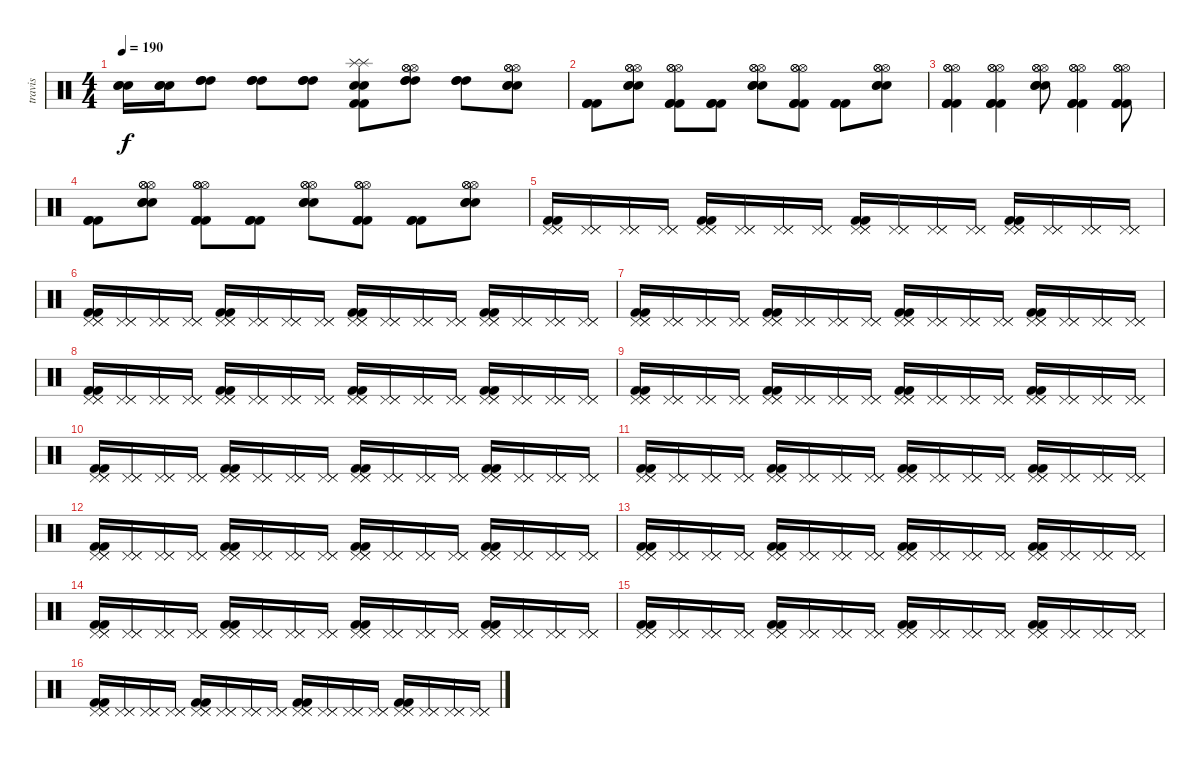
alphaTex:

\track ("travis" "travis") {instrument percussion}
\staff {score}
\articulation defaults
\ts (4 4)
\tempo 190
\clef neutral
\ks c
("Snare (hit) 2" "Snare (hit) 2" "Snare (hit) 2").16{dy f} ("Snare (hit) 2" "Snare (hit) 2" "Snare (hit) 2").16 ("High Tom (hit)" "High Tom (hit)" "High Tom (hit)").8 ("High Tom (hit)" "High Tom (hit)" "High Tom (hit)").8 ("High Tom (hit)" "High Tom (hit)" "High Tom (hit)").8 ("Snare (hit) 2" "Snare (hit) 2" "Kick (hit) 2" "Kick (hit) 2" "Splash (hit)" "Splash (hit)").8 ("High Tom (hit)" "High Tom (hit)" "High Tom (hit)" "Hi-Hat (open)" "Hi-Hat (open)" "Hi-Hat (open)").8 ("High Tom (hit)" "High Tom (hit)" "High Tom (hit)").8 ("Snare (hit) 2" "Snare (hit) 2" "Snare (hit) 2" "Hi-Hat (open)" "Hi-Hat (open)" "Hi-Hat (open)").8 |
("Kick (hit) 2" "Kick (hit) 2" "Kick (hit) 2").8 ("Snare (hit) 2" "Snare (hit) 2" "Snare (hit) 2" "Hi-Hat (open)" "Hi-Hat (open)" "Hi-Hat (open)").8 ("Kick (hit) 2" "Kick (hit) 2" "Kick (hit) 2" "Hi-Hat (open)" "Hi-Hat (open)" "Hi-Hat (open)").8 ("Kick (hit) 2" "Kick (hit) 2" "Kick (hit) 2").8 ("Snare (hit) 2" "Snare (hit) 2" "Snare (hit) 2" "Hi-Hat (open)" "Hi-Hat (open)" "Hi-Hat (open)").8 ("Kick (hit) 2" "Kick (hit) 2" "Kick (hit) 2" "Hi-Hat (open)" "Hi-Hat (open)" "Hi-Hat (open)").8 ("Kick (hit) 2" "Kick (hit) 2" "Kick (hit) 2").8 ("Snare (hit) 2" "Snare (hit) 2" "Snare (hit) 2" "Hi-Hat (open)" "Hi-Hat (open)" "Hi-Hat (open)").8 |
("Kick (hit) 2" "Kick (hit) 2" "Kick (hit) 2" "Hi-Hat (open)" "Hi-Hat (open)" "Hi-Hat (open)").4 ("Kick (hit) 2" "Kick (hit) 2" "Kick (hit) 2" "Hi-Hat (open)" "Hi-Hat (open)" "Hi-Hat (open)").4 ("Snare (hit) 2" "Snare (hit) 2" "Snare (hit) 2" "Hi-Hat (open)" "Hi-Hat (open)" "Hi-Hat (open)").8 ("Kick (hit) 2" "Kick (hit) 2" "Kick (hit) 2" "Hi-Hat (open)" "Hi-Hat (open)" "Hi-Hat (open)").4 ("Kick (hit) 2" "Kick (hit) 2" "Kick (hit) 2" "Hi-Hat (open)" "Hi-Hat (open)" "Hi-Hat (open)").8 |
("Kick (hit) 2" "Kick (hit) 2" "Kick (hit) 2").8 ("Snare (hit) 2" "Snare (hit) 2" "Snare (hit) 2" "Hi-Hat (open)" "Hi-Hat (open)" "Hi-Hat (open)").8 ("Kick (hit) 2" "Kick (hit) 2" "Kick (hit) 2" "Hi-Hat (open)" "Hi-Hat (open)" "Hi-Hat (open)").8 ("Kick (hit) 2" "Kick (hit) 2" "Kick (hit) 2").8 ("Snare (hit) 2" "Snare (hit) 2" "Snare (hit) 2" "Hi-Hat (open)" "Hi-Hat (open)" "Hi-Hat (open)").8 ("Kick (hit) 2" "Kick (hit) 2" "Kick (hit) 2" "Hi-Hat (open)" "Hi-Hat (open)" "Hi-Hat (open)").8 ("Kick (hit) 2" "Kick (hit) 2" "Kick (hit) 2").8 ("Snare (hit) 2" "Snare (hit) 2" "Snare (hit) 2" "Hi-Hat (open)" "Hi-Hat (open)" "Hi-Hat (open)").8 |
("Pedal Hi-Hat (hit)" "Pedal Hi-Hat (hit)" "Pedal Hi-Hat (hit)" "Kick (hit) 2" "Kick (hit) 2").16 ("Pedal Hi-Hat (hit)" "Pedal Hi-Hat (hit)" "Pedal Hi-Hat (hit)").16 ("Pedal Hi-Hat (hit)" "Pedal Hi-Hat (hit)" "Pedal Hi-Hat (hit)").16 ("Pedal Hi-Hat (hit)" "Pedal Hi-Hat (hit)" "Pedal Hi-Hat (hit)").16 ("Pedal Hi-Hat (hit)" "Pedal Hi-Hat (hit)" "Pedal Hi-Hat (hit)" "Kick (hit) 2" "Kick (hit) 2").16 ("Pedal Hi-Hat (hit)" "Pedal Hi-Hat (hit)" "Pedal Hi-Hat (hit)").16 ("Pedal Hi-Hat (hit)" "Pedal Hi-Hat (hit)" "Pedal Hi-Hat (hit)").16 ("Pedal Hi-Hat (hit)" "Pedal Hi-Hat (hit)" "Pedal Hi-Hat (hit)").16 ("Pedal Hi-Hat (hit)" "Pedal Hi-Hat (hit)" "Pedal Hi-Hat (hit)" "Kick (hit) 2" "Kick (hit) 2").16 ("Pedal Hi-Hat (hit)" "Pedal Hi-Hat (hit)" "Pedal Hi-Hat (hit)").16 ("Pedal Hi-Hat (hit)" "Pedal Hi-Hat (hit)" "Pedal Hi-Hat (hit)").16 ("Pedal Hi-Hat (hit)" "Pedal Hi-Hat (hit)" "Pedal Hi-Hat (hit)").16 ("Pedal Hi-Hat (hit)" "Pedal Hi-Hat (hit)" "Pedal Hi-Hat (hit)" "Kick (hit) 2" "Kick (hit) 2").16 ("Pedal Hi-Hat (hit)" "Pedal Hi-Hat (hit)" "Pedal Hi-Hat (hit)").16 ("Pedal Hi-Hat (hit)" "Pedal Hi-Hat (hit)" "Pedal Hi-Hat (hit)").16 ("Pedal Hi-Hat (hit)" "Pedal Hi-Hat (hit)" "Pedal Hi-Hat (hit)").16 |
("Pedal Hi-Hat (hit)" "Pedal Hi-Hat (hit)" "Pedal Hi-Hat (hit)" "Kick (hit) 2" "Kick (hit) 2").16 ("Pedal Hi-Hat (hit)" "Pedal Hi-Hat (hit)" "Pedal Hi-Hat (hit)").16 ("Pedal Hi-Hat (hit)" "Pedal Hi-Hat (hit)" "Pedal Hi-Hat (hit)").16 ("Pedal Hi-Hat (hit)" "Pedal Hi-Hat (hit)" "Pedal Hi-Hat (hit)").16 ("Pedal Hi-Hat (hit)" "Pedal Hi-Hat (hit)" "Pedal Hi-Hat (hit)" "Kick (hit) 2" "Kick (hit) 2").16 ("Pedal Hi-Hat (hit)" "Pedal Hi-Hat (hit)" "Pedal Hi-Hat (hit)").16 ("Pedal Hi-Hat (hit)" "Pedal Hi-Hat (hit)" "Pedal Hi-Hat (hit)").16 ("Pedal Hi-Hat (hit)" "Pedal Hi-Hat (hit)" "Pedal Hi-Hat (hit)").16 ("Pedal Hi-Hat (hit)" "Pedal Hi-Hat (hit)" "Pedal Hi-Hat (hit)" "Kick (hit) 2" "Kick (hit) 2").16 ("Pedal Hi-Hat (hit)" "Pedal Hi-Hat (hit)" "Pedal Hi-Hat (hit)").16 ("Pedal Hi-Hat (hit)" "Pedal Hi-Hat (hit)" "Pedal Hi-Hat (hit)").16 ("Pedal Hi-Hat (hit)" "Pedal Hi-Hat (hit)" "Pedal Hi-Hat (hit)").16 ("Pedal Hi-Hat (hit)" "Pedal Hi-Hat (hit)" "Pedal Hi-Hat (hit)" "Kick (hit) 2" "Kick (hit) 2").16 ("Pedal Hi-Hat (hit)" "Pedal Hi-Hat (hit)" "Pedal Hi-Hat (hit)").16 ("Pedal Hi-Hat (hit)" "Pedal Hi-Hat (hit)" "Pedal Hi-Hat (hit)").16 ("Pedal Hi-Hat (hit)" "Pedal Hi-Hat (hit)" "Pedal Hi-Hat (hit)").16 |
("Pedal Hi-Hat (hit)" "Pedal Hi-Hat (hit)" "Pedal Hi-Hat (hit)" "Kick (hit) 2" "Kick (hit) 2").16 ("Pedal Hi-Hat (hit)" "Pedal Hi-Hat (hit)" "Pedal Hi-Hat (hit)").16 ("Pedal Hi-Hat (hit)" "Pedal Hi-Hat (hit)" "Pedal Hi-Hat (hit)").16 ("Pedal Hi-Hat (hit)" "Pedal Hi-Hat (hit)" "Pedal Hi-Hat (hit)").16 ("Pedal Hi-Hat (hit)" "Pedal Hi-Hat (hit)" "Pedal Hi-Hat (hit)" "Kick (hit) 2" "Kick (hit) 2").16 ("Pedal Hi-Hat (hit)" "Pedal Hi-Hat (hit)" "Pedal Hi-Hat (hit)").16 ("Pedal Hi-Hat (hit)" "Pedal Hi-Hat (hit)" "Pedal Hi-Hat (hit)").16 ("Pedal Hi-Hat (hit)" "Pedal Hi-Hat (hit)" "Pedal Hi-Hat (hit)").16 ("Pedal Hi-Hat (hit)" "Pedal Hi-Hat (hit)" "Pedal Hi-Hat (hit)" "Kick (hit) 2" "Kick (hit) 2").16 ("Pedal Hi-Hat (hit)" "Pedal Hi-Hat (hit)" "Pedal Hi-Hat (hit)").16 ("Pedal Hi-Hat (hit)" "Pedal Hi-Hat (hit)" "Pedal Hi-Hat (hit)").16 ("Pedal Hi-Hat (hit)" "Pedal Hi-Hat (hit)" "Pedal Hi-Hat (hit)").16 ("Pedal Hi-Hat (hit)" "Pedal Hi-Hat (hit)" "Pedal Hi-Hat (hit)" "Kick (hit) 2" "Kick (hit) 2").16 ("Pedal Hi-Hat (hit)" "Pedal Hi-Hat (hit)" "Pedal Hi-Hat (hit)").16 ("Pedal Hi-Hat (hit)" "Pedal Hi-Hat (hit)" "Pedal Hi-Hat (hit)").16 ("Pedal Hi-Hat (hit)" "Pedal Hi-Hat (hit)" "Pedal Hi-Hat (hit)").16 |
("Pedal Hi-Hat (hit)" "Pedal Hi-Hat (hit)" "Pedal Hi-Hat (hit)" "Kick (hit) 2" "Kick (hit) 2").16 ("Pedal Hi-Hat (hit)" "Pedal Hi-Hat (hit)" "Pedal Hi-Hat (hit)").16 ("Pedal Hi-Hat (hit)" "Pedal Hi-Hat (hit)" "Pedal Hi-Hat (hit)").16 ("Pedal Hi-Hat (hit)" "Pedal Hi-Hat (hit)" "Pedal Hi-Hat (hit)").16 ("Pedal Hi-Hat (hit)" "Pedal Hi-Hat (hit)" "Pedal Hi-Hat (hit)" "Kick (hit) 2" "Kick (hit) 2").16 ("Pedal Hi-Hat (hit)" "Pedal Hi-Hat (hit)" "Pedal Hi-Hat (hit)").16 ("Pedal Hi-Hat (hit)" "Pedal Hi-Hat (hit)" "Pedal Hi-Hat (hit)").16 ("Pedal Hi-Hat (hit)" "Pedal Hi-Hat (hit)" "Pedal Hi-Hat (hit)").16 ("Pedal Hi-Hat (hit)" "Pedal Hi-Hat (hit)" "Pedal Hi-Hat (hit)" "Kick (hit) 2" "Kick (hit) 2").16 ("Pedal Hi-Hat (hit)" "Pedal Hi-Hat (hit)" "Pedal Hi-Hat (hit)").16 ("Pedal Hi-Hat (hit)" "Pedal Hi-Hat (hit)" "Pedal Hi-Hat (hit)").16 ("Pedal Hi-Hat (hit)" "Pedal Hi-Hat (hit)" "Pedal Hi-Hat (hit)").16 ("Pedal Hi-Hat (hit)" "Pedal Hi-Hat (hit)" "Pedal Hi-Hat (hit)" "Kick (hit) 2" "Kick (hit) 2").16 ("Pedal Hi-Hat (hit)" "Pedal Hi-Hat (hit)" "Pedal Hi-Hat (hit)").16 ("Pedal Hi-Hat (hit)" "Pedal Hi-Hat (hit)" "Pedal Hi-Hat (hit)").16 ("Pedal Hi-Hat (hit)" "Pedal Hi-Hat (hit)" "Pedal Hi-Hat (hit)").16 |
("Pedal Hi-Hat (hit)" "Pedal Hi-Hat (hit)" "Pedal Hi-Hat (hit)" "Kick (hit) 2" "Kick (hit) 2").16 ("Pedal Hi-Hat (hit)" "Pedal Hi-Hat (hit)" "Pedal Hi-Hat (hit)").16 ("Pedal Hi-Hat (hit)" "Pedal Hi-Hat (hit)" "Pedal Hi-Hat (hit)").16 ("Pedal Hi-Hat (hit)" "Pedal Hi-Hat (hit)" "Pedal Hi-Hat (hit)").16 ("Pedal Hi-Hat (hit)" "Pedal Hi-Hat (hit)" "Pedal Hi-Hat (hit)" "Kick (hit) 2" "Kick (hit) 2").16 ("Pedal Hi-Hat (hit)" "Pedal Hi-Hat (hit)" "Pedal Hi-Hat (hit)").16 ("Pedal Hi-Hat (hit)" "Pedal Hi-Hat (hit)" "Pedal Hi-Hat (hit)").16 ("Pedal Hi-Hat (hit)" "Pedal Hi-Hat (hit)" "Pedal Hi-Hat (hit)").16 ("Pedal Hi-Hat (hit)" "Pedal Hi-Hat (hit)" "Pedal Hi-Hat (hit)" "Kick (hit) 2" "Kick (hit) 2").16 ("Pedal Hi-Hat (hit)" "Pedal Hi-Hat (hit)" "Pedal Hi-Hat (hit)").16 ("Pedal Hi-Hat (hit)" "Pedal Hi-Hat (hit)" "Pedal Hi-Hat (hit)").16 ("Pedal Hi-Hat (hit)" "Pedal Hi-Hat (hit)" "Pedal Hi-Hat (hit)").16 ("Pedal Hi-Hat (hit)" "Pedal Hi-Hat (hit)" "Pedal Hi-Hat (hit)" "Kick (hit) 2" "Kick (hit) 2").16 ("Pedal Hi-Hat (hit)" "Pedal Hi-Hat (hit)" "Pedal Hi-Hat (hit)").16 ("Pedal Hi-Hat (hit)" "Pedal Hi-Hat (hit)" "Pedal Hi-Hat (hit)").16 ("Pedal Hi-Hat (hit)" "Pedal Hi-Hat (hit)" "Pedal Hi-Hat (hit)").16 |
("Pedal Hi-Hat (hit)" "Pedal Hi-Hat (hit)" "Pedal Hi-Hat (hit)" "Kick (hit) 2" "Kick (hit) 2").16 ("Pedal Hi-Hat (hit)" "Pedal Hi-Hat (hit)" "Pedal Hi-Hat (hit)").16 ("Pedal Hi-Hat (hit)" "Pedal Hi-Hat (hit)" "Pedal Hi-Hat (hit)").16 ("Pedal Hi-Hat (hit)" "Pedal Hi-Hat (hit)" "Pedal Hi-Hat (hit)").16 ("Pedal Hi-Hat (hit)" "Pedal Hi-Hat (hit)" "Pedal Hi-Hat (hit)" "Kick (hit) 2" "Kick (hit) 2").16 ("Pedal Hi-Hat (hit)" "Pedal Hi-Hat (hit)" "Pedal Hi-Hat (hit)").16 ("Pedal Hi-Hat (hit)" "Pedal Hi-Hat (hit)" "Pedal Hi-Hat (hit)").16 ("Pedal Hi-Hat (hit)" "Pedal Hi-Hat (hit)" "Pedal Hi-Hat (hit)").16 ("Pedal Hi-Hat (hit)" "Pedal Hi-Hat (hit)" "Pedal Hi-Hat (hit)" "Kick (hit) 2" "Kick (hit) 2").16 ("Pedal Hi-Hat (hit)" "Pedal Hi-Hat (hit)" "Pedal Hi-Hat (hit)").16 ("Pedal Hi-Hat (hit)" "Pedal Hi-Hat (hit)" "Pedal Hi-Hat (hit)").16 ("Pedal Hi-Hat (hit)" "Pedal Hi-Hat (hit)" "Pedal Hi-Hat (hit)").16 ("Pedal Hi-Hat (hit)" "Pedal Hi-Hat (hit)" "Pedal Hi-Hat (hit)" "Kick (hit) 2" "Kick (hit) 2").16 ("Pedal Hi-Hat (hit)" "Pedal Hi-Hat (hit)" "Pedal Hi-Hat (hit)").16 ("Pedal Hi-Hat (hit)" "Pedal Hi-Hat (hit)" "Pedal Hi-Hat (hit)").16 ("Pedal Hi-Hat (hit)" "Pedal Hi-Hat (hit)" "Pedal Hi-Hat (hit)").16 |
("Pedal Hi-Hat (hit)" "Pedal Hi-Hat (hit)" "Pedal Hi-Hat (hit)" "Kick (hit) 2" "Kick (hit) 2").16 ("Pedal Hi-Hat (hit)" "Pedal Hi-Hat (hit)" "Pedal Hi-Hat (hit)").16 ("Pedal Hi-Hat (hit)" "Pedal Hi-Hat (hit)" "Pedal Hi-Hat (hit)").16 ("Pedal Hi-Hat (hit)" "Pedal Hi-Hat (hit)" "Pedal Hi-Hat (hit)").16 ("Pedal Hi-Hat (hit)" "Pedal Hi-Hat (hit)" "Pedal Hi-Hat (hit)" "Kick (hit) 2" "Kick (hit) 2").16 ("Pedal Hi-Hat (hit)" "Pedal Hi-Hat (hit)" "Pedal Hi-Hat (hit)").16 ("Pedal Hi-Hat (hit)" "Pedal Hi-Hat (hit)" "Pedal Hi-Hat (hit)").16 ("Pedal Hi-Hat (hit)" "Pedal Hi-Hat (hit)" "Pedal Hi-Hat (hit)").16 ("Pedal Hi-Hat (hit)" "Pedal Hi-Hat (hit)" "Pedal Hi-Hat (hit)" "Kick (hit) 2" "Kick (hit) 2").16 ("Pedal Hi-Hat (hit)" "Pedal Hi-Hat (hit)" "Pedal Hi-Hat (hit)").16 ("Pedal Hi-Hat (hit)" "Pedal Hi-Hat (hit)" "Pedal Hi-Hat (hit)").16 ("Pedal Hi-Hat (hit)" "Pedal Hi-Hat (hit)" "Pedal Hi-Hat (hit)").16 ("Pedal Hi-Hat (hit)" "Pedal Hi-Hat (hit)" "Pedal Hi-Hat (hit)" "Kick (hit) 2" "Kick (hit) 2").16 ("Pedal Hi-Hat (hit)" "Pedal Hi-Hat (hit)" "Pedal Hi-Hat (hit)").16 ("Pedal Hi-Hat (hit)" "Pedal Hi-Hat (hit)" "Pedal Hi-Hat (hit)").16 ("Pedal Hi-Hat (hit)" "Pedal Hi-Hat (hit)" "Pedal Hi-Hat (hit)").16 |
("Pedal Hi-Hat (hit)" "Pedal Hi-Hat (hit)" "Pedal Hi-Hat (hit)" "Kick (hit) 2" "Kick (hit) 2").16 ("Pedal Hi-Hat (hit)" "Pedal Hi-Hat (hit)" "Pedal Hi-Hat (hit)").16 ("Pedal Hi-Hat (hit)" "Pedal Hi-Hat (hit)" "Pedal Hi-Hat (hit)").16 ("Pedal Hi-Hat (hit)" "Pedal Hi-Hat (hit)" "Pedal Hi-Hat (hit)").16 ("Pedal Hi-Hat (hit)" "Pedal Hi-Hat (hit)" "Pedal Hi-Hat (hit)" "Kick (hit) 2" "Kick (hit) 2").16 ("Pedal Hi-Hat (hit)" "Pedal Hi-Hat (hit)" "Pedal Hi-Hat (hit)").16 ("Pedal Hi-Hat (hit)" "Pedal Hi-Hat (hit)" "Pedal Hi-Hat (hit)").16 ("Pedal Hi-Hat (hit)" "Pedal Hi-Hat (hit)" "Pedal Hi-Hat (hit)").16 ("Pedal Hi-Hat (hit)" "Pedal Hi-Hat (hit)" "Pedal Hi-Hat (hit)" "Kick (hit) 2" "Kick (hit) 2").16 ("Pedal Hi-Hat (hit)" "Pedal Hi-Hat (hit)" "Pedal Hi-Hat (hit)").16 ("Pedal Hi-Hat (hit)" "Pedal Hi-Hat (hit)" "Pedal Hi-Hat (hit)").16 ("Pedal Hi-Hat (hit)" "Pedal Hi-Hat (hit)" "Pedal Hi-Hat (hit)").16 ("Pedal Hi-Hat (hit)" "Pedal Hi-Hat (hit)" "Pedal Hi-Hat (hit)" "Kick (hit) 2" "Kick (hit) 2").16 ("Pedal Hi-Hat (hit)" "Pedal Hi-Hat (hit)" "Pedal Hi-Hat (hit)").16 ("Pedal Hi-Hat (hit)" "Pedal Hi-Hat (hit)" "Pedal Hi-Hat (hit)").16 ("Pedal Hi-Hat (hit)" "Pedal Hi-Hat (hit)" "Pedal Hi-Hat (hit)").16 |
("Pedal Hi-Hat (hit)" "Pedal Hi-Hat (hit)" "Pedal Hi-Hat (hit)" "Kick (hit) 2" "Kick (hit) 2").16 ("Pedal Hi-Hat (hit)" "Pedal Hi-Hat (hit)" "Pedal Hi-Hat (hit)").16 ("Pedal Hi-Hat (hit)" "Pedal Hi-Hat (hit)" "Pedal Hi-Hat (hit)").16 ("Pedal Hi-Hat (hit)" "Pedal Hi-Hat (hit)" "Pedal Hi-Hat (hit)").16 ("Pedal Hi-Hat (hit)" "Pedal Hi-Hat (hit)" "Pedal Hi-Hat (hit)" "Kick (hit) 2" "Kick (hit) 2").16 ("Pedal Hi-Hat (hit)" "Pedal Hi-Hat (hit)" "Pedal Hi-Hat (hit)").16 ("Pedal Hi-Hat (hit)" "Pedal Hi-Hat (hit)" "Pedal Hi-Hat (hit)").16 ("Pedal Hi-Hat (hit)" "Pedal Hi-Hat (hit)" "Pedal Hi-Hat (hit)").16 ("Pedal Hi-Hat (hit)" "Pedal Hi-Hat (hit)" "Pedal Hi-Hat (hit)" "Kick (hit) 2" "Kick (hit) 2").16 ("Pedal Hi-Hat (hit)" "Pedal Hi-Hat (hit)" "Pedal Hi-Hat (hit)").16 ("Pedal Hi-Hat (hit)" "Pedal Hi-Hat (hit)" "Pedal Hi-Hat (hit)").16 ("Pedal Hi-Hat (hit)" "Pedal Hi-Hat (hit)" "Pedal Hi-Hat (hit)").16 ("Pedal Hi-Hat (hit)" "Pedal Hi-Hat (hit)" "Pedal Hi-Hat (hit)" "Kick (hit) 2" "Kick (hit) 2").16 ("Pedal Hi-Hat (hit)" "Pedal Hi-Hat (hit)" "Pedal Hi-Hat (hit)").16 ("Pedal Hi-Hat (hit)" "Pedal Hi-Hat (hit)" "Pedal Hi-Hat (hit)").16 ("Pedal Hi-Hat (hit)" "Pedal Hi-Hat (hit)" "Pedal Hi-Hat (hit)").16 |
("Pedal Hi-Hat (hit)" "Pedal Hi-Hat (hit)" "Pedal Hi-Hat (hit)" "Kick (hit) 2" "Kick (hit) 2").16 ("Pedal Hi-Hat (hit)" "Pedal Hi-Hat (hit)" "Pedal Hi-Hat (hit)").16 ("Pedal Hi-Hat (hit)" "Pedal Hi-Hat (hit)" "Pedal Hi-Hat (hit)").16 ("Pedal Hi-Hat (hit)" "Pedal Hi-Hat (hit)" "Pedal Hi-Hat (hit)").16 ("Pedal Hi-Hat (hit)" "Pedal Hi-Hat (hit)" "Pedal Hi-Hat (hit)" "Kick (hit) 2" "Kick (hit) 2").16 ("Pedal Hi-Hat (hit)" "Pedal Hi-Hat (hit)" "Pedal Hi-Hat (hit)").16 ("Pedal Hi-Hat (hit)" "Pedal Hi-Hat (hit)" "Pedal Hi-Hat (hit)").16 ("Pedal Hi-Hat (hit)" "Pedal Hi-Hat (hit)" "Pedal Hi-Hat (hit)").16 ("Pedal Hi-Hat (hit)" "Pedal Hi-Hat (hit)" "Pedal Hi-Hat (hit)" "Kick (hit) 2" "Kick (hit) 2").16 ("Pedal Hi-Hat (hit)" "Pedal Hi-Hat (hit)" "Pedal Hi-Hat (hit)").16 ("Pedal Hi-Hat (hit)" "Pedal Hi-Hat (hit)" "Pedal Hi-Hat (hit)").16 ("Pedal Hi-Hat (hit)" "Pedal Hi-Hat (hit)" "Pedal Hi-Hat (hit)").16 ("Pedal Hi-Hat (hit)" "Pedal Hi-Hat (hit)" "Pedal Hi-Hat (hit)" "Kick (hit) 2" "Kick (hit) 2").16 ("Pedal Hi-Hat (hit)" "Pedal Hi-Hat (hit)" "Pedal Hi-Hat (hit)").16 ("Pedal Hi-Hat (hit)" "Pedal Hi-Hat (hit)" "Pedal Hi-Hat (hit)").16 ("Pedal Hi-Hat (hit)" "Pedal Hi-Hat (hit)" "Pedal Hi-Hat (hit)").16 |
("Pedal Hi-Hat (hit)" "Pedal Hi-Hat (hit)" "Pedal Hi-Hat (hit)" "Kick (hit) 2" "Kick (hit) 2").16 ("Pedal Hi-Hat (hit)" "Pedal Hi-Hat (hit)" "Pedal Hi-Hat (hit)").16 ("Pedal Hi-Hat (hit)" "Pedal Hi-Hat (hit)" "Pedal Hi-Hat (hit)").16 ("Pedal Hi-Hat (hit)" "Pedal Hi-Hat (hit)" "Pedal Hi-Hat (hit)").16 ("Pedal Hi-Hat (hit)" "Pedal Hi-Hat (hit)" "Pedal Hi-Hat (hit)" "Kick (hit) 2" "Kick (hit) 2").16 ("Pedal Hi-Hat (hit)" "Pedal Hi-Hat (hit)" "Pedal Hi-Hat (hit)").16 ("Pedal Hi-Hat (hit)" "Pedal Hi-Hat (hit)" "Pedal Hi-Hat (hit)").16 ("Pedal Hi-Hat (hit)" "Pedal Hi-Hat (hit)" "Pedal Hi-Hat (hit)").16 ("Pedal Hi-Hat (hit)" "Pedal Hi-Hat (hit)" "Pedal Hi-Hat (hit)" "Kick (hit) 2" "Kick (hit) 2").16 ("Pedal Hi-Hat (hit)" "Pedal Hi-Hat (hit)" "Pedal Hi-Hat (hit)").16 ("Pedal Hi-Hat (hit)" "Pedal Hi-Hat (hit)" "Pedal Hi-Hat (hit)").16 ("Pedal Hi-Hat (hit)" "Pedal Hi-Hat (hit)" "Pedal Hi-Hat (hit)").16 ("Pedal Hi-Hat (hit)" "Pedal Hi-Hat (hit)" "Pedal Hi-Hat (hit)" "Kick (hit) 2" "Kick (hit) 2").16 ("Pedal Hi-Hat (hit)" "Pedal Hi-Hat (hit)" "Pedal Hi-Hat (hit)").16 ("Pedal Hi-Hat (hit)" "Pedal Hi-Hat (hit)" "Pedal Hi-Hat (hit)").16 ("Pedal Hi-Hat (hit)" "Pedal Hi-Hat (hit)" "Pedal Hi-Hat (hit)").16 |
("Pedal Hi-Hat (hit)" "Pedal Hi-Hat (hit)" "Pedal Hi-Hat (hit)" "Kick (hit) 2" "Kick (hit) 2").16 ("Pedal Hi-Hat (hit)" "Pedal Hi-Hat (hit)" "Pedal Hi-Hat (hit)").16 ("Pedal Hi-Hat (hit)" "Pedal Hi-Hat (hit)" "Pedal Hi-Hat (hit)").16 ("Pedal Hi-Hat (hit)" "Pedal Hi-Hat (hit)" "Pedal Hi-Hat (hit)").16 ("Pedal Hi-Hat (hit)" "Pedal Hi-Hat (hit)" "Pedal Hi-Hat (hit)" "Kick (hit) 2" "Kick (hit) 2").16 ("Pedal Hi-Hat (hit)" "Pedal Hi-Hat (hit)" "Pedal Hi-Hat (hit)").16 ("Pedal Hi-Hat (hit)" "Pedal Hi-Hat (hit)" "Pedal Hi-Hat (hit)").16 ("Pedal Hi-Hat (hit)" "Pedal Hi-Hat (hit)" "Pedal Hi-Hat (hit)").16 ("Pedal Hi-Hat (hit)" "Pedal Hi-Hat (hit)" "Pedal Hi-Hat (hit)" "Kick (hit) 2" "Kick (hit) 2").16 ("Pedal Hi-Hat (hit)" "Pedal Hi-Hat (hit)" "Pedal Hi-Hat (hit)").16 ("Pedal Hi-Hat (hit)" "Pedal Hi-Hat (hit)" "Pedal Hi-Hat (hit)").16 ("Pedal Hi-Hat (hit)" "Pedal Hi-Hat (hit)" "Pedal Hi-Hat (hit)").16 ("Pedal Hi-Hat (hit)" "Pedal Hi-Hat (hit)" "Pedal Hi-Hat (hit)" "Kick (hit) 2" "Kick (hit) 2").16 ("Pedal Hi-Hat (hit)" "Pedal Hi-Hat (hit)" "Pedal Hi-Hat (hit)").16 ("Pedal Hi-Hat (hit)" "Pedal Hi-Hat (hit)" "Pedal Hi-Hat (hit)").16 ("Pedal Hi-Hat (hit)" "Pedal Hi-Hat (hit)" "Pedal Hi-Hat (hit)").16
